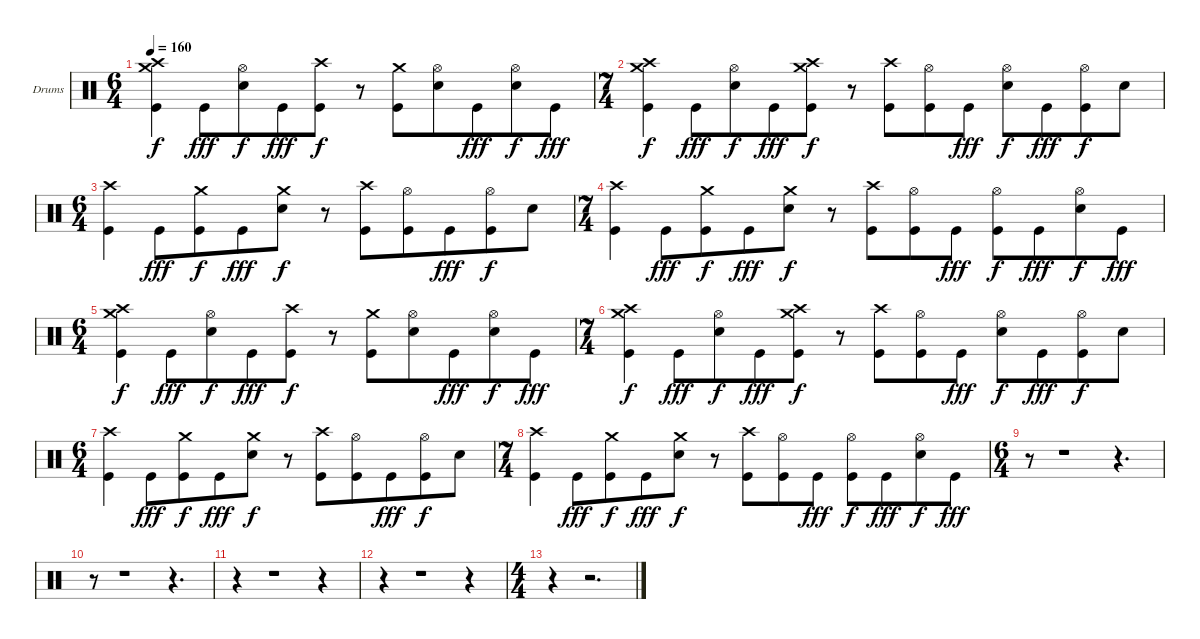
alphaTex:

\bracketExtendMode groupsimilarinstruments
\firstSystemTrackNameOrientation horizontal
\otherSystemsTrackNameOrientation horizontal
\track ("Drumkit" "Drums") {instrument percussion}
\staff {score}
\articulation defaults
\ts (6 4)
\beaming (8 6 6)
\tempo 160
\clef neutral
\ks c
("Crash high (hit)" "Crash medium (hit)" "Kick (hit)").4{dy f} "Kick (hit)".8{dy fff} ("Hi-Hat (open)" "Snare (hit) 2").8{dy f} "Kick (hit)".8{dy fff} ("Crash high (hit)" "Kick (hit)").8{dy f} r.8 ("Crash medium (hit)" "Kick (hit)").8 ("Hi-Hat (open)" "Snare (hit) 2").8 "Kick (hit)".8{dy fff} ("Hi-Hat (open)" "Snare (hit) 2").8{dy f} "Kick (hit)".8{dy fff} |
\ts (7 4)
\beaming (8 6 4 4)
("Crash high (hit)" "Crash medium (hit)" "Kick (hit)").4{dy f} "Kick (hit)".8{dy fff} ("Hi-Hat (open)" "Snare (hit) 2").8{dy f} "Kick (hit)".8{dy fff} ("Crash medium (hit)" "Crash high (hit)" "Kick (hit)").8{dy f} r.8 ("Crash high (hit)" "Kick (hit)").8 ("Hi-Hat (open)" "Kick (hit)").8 "Kick (hit)".8{dy fff} ("Hi-Hat (open)" "Snare (hit) 2").8{dy f} "Kick (hit)".8{dy fff} ("Hi-Hat (open)" "Kick (hit)").8{dy f} "Snare (hit) 2".8 |
\ts (6 4)
\beaming (8 6 6)
("Crash high (hit)" "Kick (hit)").4 "Kick (hit)".8{dy fff} ("Crash medium (hit)" "Kick (hit)").8{dy f} "Kick (hit)".8{dy fff} ("Crash medium (hit)" "Snare (hit) 2").8{dy f} r.8 ("Crash high (hit)" "Kick (hit)").8 ("Hi-Hat (open)" "Kick (hit)").8 "Kick (hit)".8{dy fff} ("Hi-Hat (open)" "Kick (hit)").8{dy f} "Snare (hit) 2".8 |
\ts (7 4)
\beaming (8 6 4 4)
("Crash high (hit)" "Kick (hit)").4 "Kick (hit)".8{dy fff} ("Crash medium (hit)" "Kick (hit)").8{dy f} "Kick (hit)".8{dy fff} ("Crash medium (hit)" "Snare (hit) 2").8{dy f} r.8 ("Crash high (hit)" "Kick (hit)").8 ("Hi-Hat (open)" "Kick (hit)").8 "Kick (hit)".8{dy fff} ("Hi-Hat (open)" "Kick (hit)").8{dy f} "Kick (hit)".8{dy fff} ("Hi-Hat (open)" "Snare (hit) 2").8{dy f} "Kick (hit)".8{dy fff} |
\ts (6 4)
\beaming (8 6 6)
("Crash high (hit)" "Crash medium (hit)" "Kick (hit)").4{dy f} "Kick (hit)".8{dy fff} ("Hi-Hat (open)" "Snare (hit) 2").8{dy f} "Kick (hit)".8{dy fff} ("Crash high (hit)" "Kick (hit)").8{dy f} r.8 ("Crash medium (hit)" "Kick (hit)").8 ("Hi-Hat (open)" "Snare (hit) 2").8 "Kick (hit)".8{dy fff} ("Hi-Hat (open)" "Snare (hit) 2").8{dy f} "Kick (hit)".8{dy fff} |
\ts (7 4)
\beaming (8 6 4 4)
("Crash high (hit)" "Crash medium (hit)" "Kick (hit)").4{dy f} "Kick (hit)".8{dy fff} ("Hi-Hat (open)" "Snare (hit) 2").8{dy f} "Kick (hit)".8{dy fff} ("Crash medium (hit)" "Crash high (hit)" "Kick (hit)").8{dy f} r.8 ("Crash high (hit)" "Kick (hit)").8 ("Hi-Hat (open)" "Kick (hit)").8 "Kick (hit)".8{dy fff} ("Hi-Hat (open)" "Snare (hit) 2").8{dy f} "Kick (hit)".8{dy fff} ("Hi-Hat (open)" "Kick (hit)").8{dy f} "Snare (hit) 2".8 |
\ts (6 4)
\beaming (8 6 6)
("Crash high (hit)" "Kick (hit)").4 "Kick (hit)".8{dy fff} ("Crash medium (hit)" "Kick (hit)").8{dy f} "Kick (hit)".8{dy fff} ("Crash medium (hit)" "Snare (hit) 2").8{dy f} r.8 ("Crash high (hit)" "Kick (hit)").8 ("Hi-Hat (open)" "Kick (hit)").8 "Kick (hit)".8{dy fff} ("Hi-Hat (open)" "Kick (hit)").8{dy f} "Snare (hit) 2".8 |
\ts (7 4)
\beaming (8 6 4 4)
("Crash high (hit)" "Kick (hit)").4 "Kick (hit)".8{dy fff} ("Crash medium (hit)" "Kick (hit)").8{dy f} "Kick (hit)".8{dy fff} ("Crash medium (hit)" "Snare (hit) 2").8{dy f} r.8 ("Crash high (hit)" "Kick (hit)").8 ("Hi-Hat (open)" "Kick (hit)").8 "Kick (hit)".8{dy fff} ("Hi-Hat (open)" "Kick (hit)").8{dy f} "Kick (hit)".8{dy fff} ("Hi-Hat (open)" "Snare (hit) 2").8{dy f} "Kick (hit)".8{dy fff} |
\ts (6 4)
\beaming (8 6 6)
r.8 r.1 r.4{d} |
r.8 r.1 r.4{d} |
r.4 r.1 r.4 |
r.4 r.1 r.4 |
\ts (4 4)
\beaming (8 2 2 2 2)
r.4 r.2{d}
